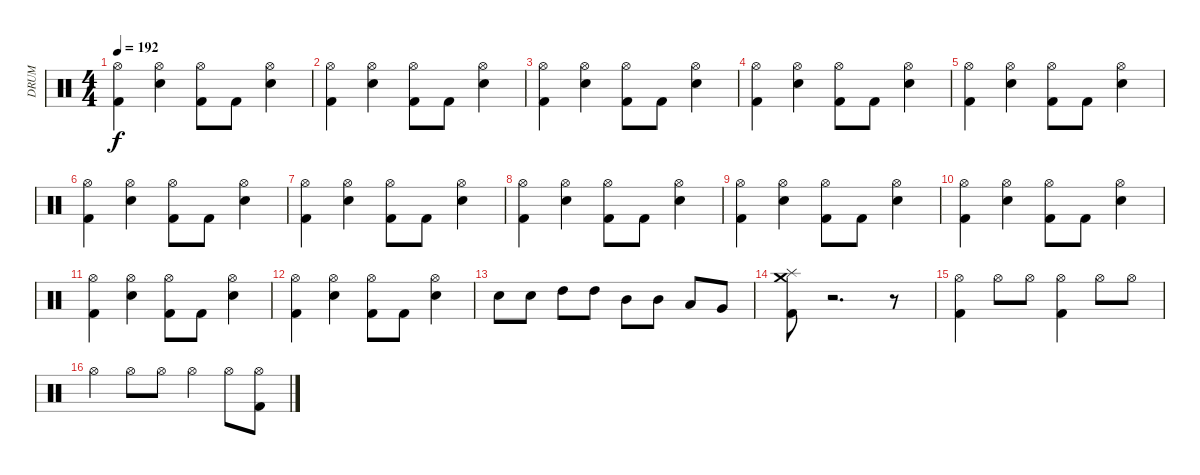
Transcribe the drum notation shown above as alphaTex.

\track ("     DRUM" "     DRUM") {instrument percussion}
\staff {score}
\articulation defaults
\ts (4 4)
\tempo 192
\clef neutral
\ks c
("Hi-Hat (open)" "Kick (hit) 2").4{dy f} ("Hi-Hat (open)" "Electric Snare (hit)").4 ("Hi-Hat (open)" "Kick (hit) 2").8 "Kick (hit) 2".8 ("Hi-Hat (open)" "Electric Snare (hit)").4 |
("Hi-Hat (open)" "Kick (hit) 2").4 ("Hi-Hat (open)" "Electric Snare (hit)").4 ("Hi-Hat (open)" "Kick (hit) 2").8 "Kick (hit) 2".8 ("Hi-Hat (open)" "Electric Snare (hit)").4 |
("Hi-Hat (open)" "Kick (hit) 2").4 ("Hi-Hat (open)" "Electric Snare (hit)").4 ("Hi-Hat (open)" "Kick (hit) 2").8 "Kick (hit) 2".8 ("Hi-Hat (open)" "Electric Snare (hit)").4 |
("Hi-Hat (open)" "Kick (hit) 2").4 ("Hi-Hat (open)" "Electric Snare (hit)").4 ("Hi-Hat (open)" "Kick (hit) 2").8 "Kick (hit) 2".8 ("Hi-Hat (open)" "Electric Snare (hit)").4 |
("Hi-Hat (open)" "Kick (hit) 2").4 ("Hi-Hat (open)" "Electric Snare (hit)").4 ("Hi-Hat (open)" "Kick (hit) 2").8 "Kick (hit) 2".8 ("Hi-Hat (open)" "Electric Snare (hit)").4 |
("Hi-Hat (open)" "Kick (hit) 2").4 ("Hi-Hat (open)" "Electric Snare (hit)").4 ("Hi-Hat (open)" "Kick (hit) 2").8 "Kick (hit) 2".8 ("Hi-Hat (open)" "Electric Snare (hit)").4 |
("Hi-Hat (open)" "Kick (hit) 2").4 ("Hi-Hat (open)" "Electric Snare (hit)").4 ("Hi-Hat (open)" "Kick (hit) 2").8 "Kick (hit) 2".8 ("Hi-Hat (open)" "Electric Snare (hit)").4 |
("Hi-Hat (open)" "Kick (hit) 2").4 ("Hi-Hat (open)" "Electric Snare (hit)").4 ("Hi-Hat (open)" "Kick (hit) 2").8 "Kick (hit) 2".8 ("Hi-Hat (open)" "Electric Snare (hit)").4 |
("Hi-Hat (open)" "Kick (hit) 2").4 ("Hi-Hat (open)" "Electric Snare (hit)").4 ("Hi-Hat (open)" "Kick (hit) 2").8 "Kick (hit) 2".8 ("Hi-Hat (open)" "Electric Snare (hit)").4 |
("Hi-Hat (open)" "Kick (hit) 2").4 ("Hi-Hat (open)" "Electric Snare (hit)").4 ("Hi-Hat (open)" "Kick (hit) 2").8 "Kick (hit) 2".8 ("Hi-Hat (open)" "Electric Snare (hit)").4 |
("Hi-Hat (open)" "Kick (hit) 2").4 ("Hi-Hat (open)" "Electric Snare (hit)").4 ("Hi-Hat (open)" "Kick (hit) 2").8 "Kick (hit) 2".8 ("Hi-Hat (open)" "Electric Snare (hit)").4 |
("Hi-Hat (open)" "Kick (hit) 2").4 ("Hi-Hat (open)" "Electric Snare (hit)").4 ("Hi-Hat (open)" "Kick (hit) 2").8 "Kick (hit) 2".8 ("Hi-Hat (open)" "Electric Snare (hit)").4 |
"Electric Snare (hit)".8 "Electric Snare (hit)".8 "High Tom (hit)".8 "High Tom (hit)".8 "Mid Tom (hit)".8 "Mid Tom (hit)".8 "Low Tom (hit)".8 "Very Low Tom (hit)".8 |
("Crash medium (hit)" "Splash (hit)" "Kick (hit) 2").8 r.2{d} r.8 |
("Kick (hit) 2" "Hi-Hat (open)").4 "Hi-Hat (open)".8 "Hi-Hat (open)".8 ("Kick (hit) 2" "Hi-Hat (open)").4 "Hi-Hat (open)".8 "Hi-Hat (open)".8 |
"Hi-Hat (open)".4 "Hi-Hat (open)".8 "Hi-Hat (open)".8 "Hi-Hat (open)".4 "Hi-Hat (open)".8 ("Kick (hit) 2" "Hi-Hat (open)").8
